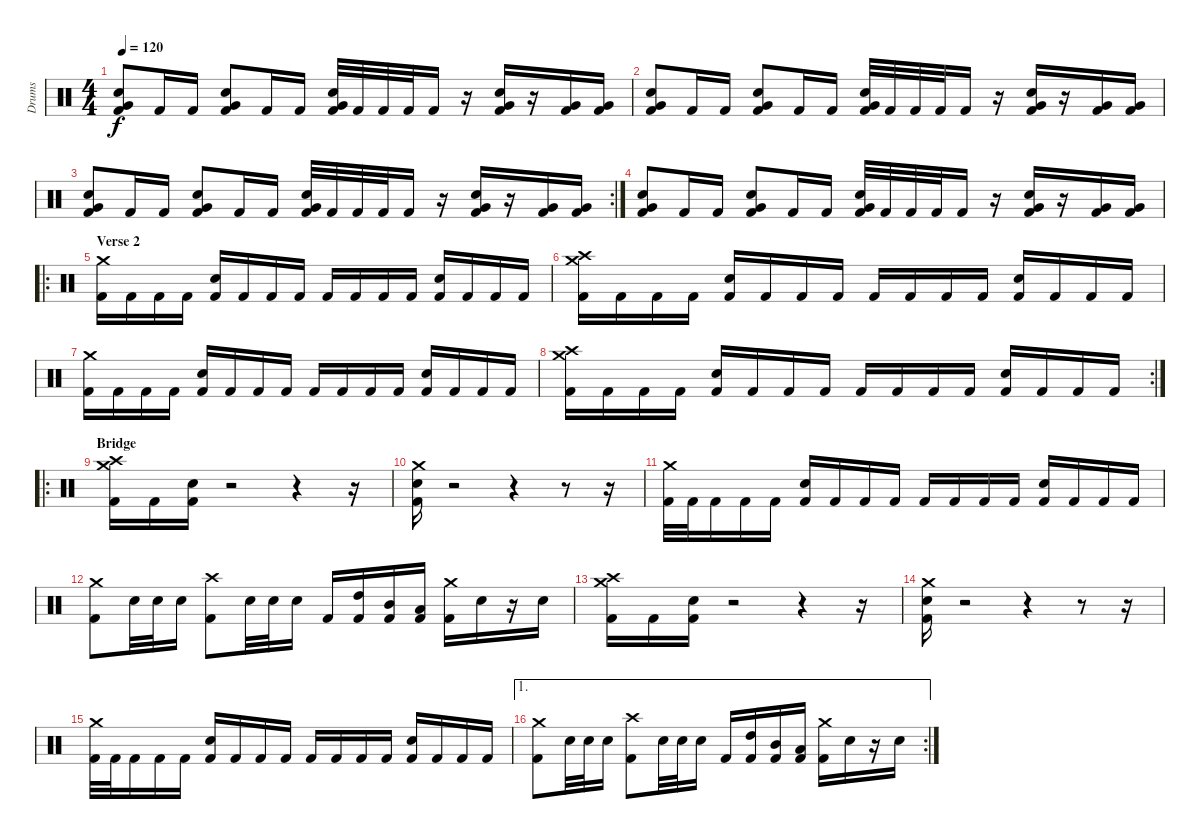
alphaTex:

\track ("Drums" "Drums") {instrument percussion}
\staff {score}
\articulation defaults
\ts (4 4)
\tempo 120
\clef neutral
\ks c
("Snare (hit) 2" "Very Low Tom (hit)" "Kick (hit) 2").8{dy f} "Kick (hit) 2".16 "Kick (hit) 2".16 ("Snare (hit) 2" "Very Low Tom (hit)" "Kick (hit) 2").8 "Kick (hit) 2".16 "Kick (hit) 2".16 ("Snare (hit) 2" "Very Low Tom (hit)" "Kick (hit) 2").32 "Kick (hit) 2".32 "Kick (hit) 2".32 "Kick (hit) 2".32 "Kick (hit) 2".16 r.16 ("Snare (hit) 2" "Very Low Tom (hit)" "Kick (hit) 2").16 r.16 ("Very Low Tom (hit)" "Kick (hit) 2").16 ("Very Low Tom (hit)" "Kick (hit) 2").16 |
("Snare (hit) 2" "Very Low Tom (hit)" "Kick (hit) 2").8 "Kick (hit) 2".16 "Kick (hit) 2".16 ("Snare (hit) 2" "Very Low Tom (hit)" "Kick (hit) 2").8 "Kick (hit) 2".16 "Kick (hit) 2".16 ("Snare (hit) 2" "Very Low Tom (hit)" "Kick (hit) 2").32 "Kick (hit) 2".32 "Kick (hit) 2".32 "Kick (hit) 2".32 "Kick (hit) 2".16 r.16 ("Snare (hit) 2" "Very Low Tom (hit)" "Kick (hit) 2").16 r.16 ("Very Low Tom (hit)" "Kick (hit) 2").16 ("Very Low Tom (hit)" "Kick (hit) 2").16 |
\rc 2
("Snare (hit) 2" "Very Low Tom (hit)" "Kick (hit) 2").8 "Kick (hit) 2".16 "Kick (hit) 2".16 ("Snare (hit) 2" "Very Low Tom (hit)" "Kick (hit) 2").8 "Kick (hit) 2".16 "Kick (hit) 2".16 ("Snare (hit) 2" "Very Low Tom (hit)" "Kick (hit) 2").32 "Kick (hit) 2".32 "Kick (hit) 2".32 "Kick (hit) 2".32 "Kick (hit) 2".16 r.16 ("Snare (hit) 2" "Very Low Tom (hit)" "Kick (hit) 2").16 r.16 ("Very Low Tom (hit)" "Kick (hit) 2").16 ("Very Low Tom (hit)" "Kick (hit) 2").16 |
("Snare (hit) 2" "Very Low Tom (hit)" "Kick (hit) 2").8 "Kick (hit) 2".16 "Kick (hit) 2".16 ("Snare (hit) 2" "Very Low Tom (hit)" "Kick (hit) 2").8 "Kick (hit) 2".16 "Kick (hit) 2".16 ("Snare (hit) 2" "Very Low Tom (hit)" "Kick (hit) 2").32 "Kick (hit) 2".32 "Kick (hit) 2".32 "Kick (hit) 2".32 "Kick (hit) 2".16 r.16 ("Snare (hit) 2" "Very Low Tom (hit)" "Kick (hit) 2").16 r.16 ("Very Low Tom (hit)" "Kick (hit) 2").16 ("Very Low Tom (hit)" "Kick (hit) 2").16 |
\ro
\section ("" "Verse 2")
("Crash medium (hit)" "Kick (hit) 2").16 "Kick (hit) 2".16 "Kick (hit) 2".16 "Kick (hit) 2".16 ("Snare (hit) 2" "Kick (hit) 2").16 "Kick (hit) 2".16 "Kick (hit) 2".16 "Kick (hit) 2".16 "Kick (hit) 2".16 "Kick (hit) 2".16 "Kick (hit) 2".16 "Kick (hit) 2".16 ("Snare (hit) 2" "Kick (hit) 2").16 "Kick (hit) 2".16 "Kick (hit) 2".16 "Kick (hit) 2".16 |
("Crash medium (hit)" "Crash high (hit)" "Kick (hit) 2").16 "Kick (hit) 2".16 "Kick (hit) 2".16 "Kick (hit) 2".16 ("Snare (hit) 2" "Kick (hit) 2").16 "Kick (hit) 2".16 "Kick (hit) 2".16 "Kick (hit) 2".16 "Kick (hit) 2".16 "Kick (hit) 2".16 "Kick (hit) 2".16 "Kick (hit) 2".16 ("Snare (hit) 2" "Kick (hit) 2").16 "Kick (hit) 2".16 "Kick (hit) 2".16 "Kick (hit) 2".16 |
("Crash medium (hit)" "Kick (hit) 2").16 "Kick (hit) 2".16 "Kick (hit) 2".16 "Kick (hit) 2".16 ("Snare (hit) 2" "Kick (hit) 2").16 "Kick (hit) 2".16 "Kick (hit) 2".16 "Kick (hit) 2".16 "Kick (hit) 2".16 "Kick (hit) 2".16 "Kick (hit) 2".16 "Kick (hit) 2".16 ("Snare (hit) 2" "Kick (hit) 2").16 "Kick (hit) 2".16 "Kick (hit) 2".16 "Kick (hit) 2".16 |
\rc 2
("Crash medium (hit)" "Crash high (hit)" "Kick (hit) 2").16 "Kick (hit) 2".16 "Kick (hit) 2".16 "Kick (hit) 2".16 ("Snare (hit) 2" "Kick (hit) 2").16 "Kick (hit) 2".16 "Kick (hit) 2".16 "Kick (hit) 2".16 "Kick (hit) 2".16 "Kick (hit) 2".16 "Kick (hit) 2".16 "Kick (hit) 2".16 ("Snare (hit) 2" "Kick (hit) 2").16 "Kick (hit) 2".16 "Kick (hit) 2".16 "Kick (hit) 2".16 |
\ro
\section ("" "Bridge")
("Crash medium (hit)" "Crash high (hit)" "Kick (hit) 2").16 "Kick (hit) 2".16 ("Snare (hit) 2" "Kick (hit) 2").16 r.2 r.4 r.16 |
("Crash medium (hit)" "Snare (hit) 2" "Kick (hit) 2").16 r.2 r.4 r.8 r.16 |
("Crash medium (hit)" "Kick (hit) 2").32 "Kick (hit) 2".32 "Kick (hit) 2".16 "Kick (hit) 2".16 "Kick (hit) 2".16 ("Snare (hit) 2" "Kick (hit) 2").16 "Kick (hit) 2".16 "Kick (hit) 2".16 "Kick (hit) 2".16 "Kick (hit) 2".16 "Kick (hit) 2".16 "Kick (hit) 2".16 "Kick (hit) 2".16 ("Snare (hit) 2" "Kick (hit) 2").16 "Kick (hit) 2".16 "Kick (hit) 2".16 "Kick (hit) 2".16 |
("Crash medium (hit)" "Kick (hit) 2").8 "Snare (hit) 2".32 "Snare (hit) 2".32 "Snare (hit) 2".16 ("Crash high (hit)" "Kick (hit) 2").8 "Snare (hit) 2".32 "Snare (hit) 2".32 "Snare (hit) 2".16 "Kick (hit) 2".16 ("High Tom (hit)" "Kick (hit) 2").16 ("Mid Tom (hit)" "Kick (hit) 2").16 ("Low Tom (hit)" "Kick (hit) 2").16 ("Crash medium (hit)" "Kick (hit) 2").16 "Snare (hit) 2".16 r.16 "Snare (hit) 2".16 |
("Crash medium (hit)" "Crash high (hit)" "Kick (hit) 2").16 "Kick (hit) 2".16 ("Snare (hit) 2" "Kick (hit) 2").16 r.2 r.4 r.16 |
("Crash medium (hit)" "Snare (hit) 2" "Kick (hit) 2").16 r.2 r.4 r.8 r.16 |
("Crash medium (hit)" "Kick (hit) 2").32 "Kick (hit) 2".32 "Kick (hit) 2".16 "Kick (hit) 2".16 "Kick (hit) 2".16 ("Snare (hit) 2" "Kick (hit) 2").16 "Kick (hit) 2".16 "Kick (hit) 2".16 "Kick (hit) 2".16 "Kick (hit) 2".16 "Kick (hit) 2".16 "Kick (hit) 2".16 "Kick (hit) 2".16 ("Snare (hit) 2" "Kick (hit) 2").16 "Kick (hit) 2".16 "Kick (hit) 2".16 "Kick (hit) 2".16 |
\ae 1
\rc 2
("Crash medium (hit)" "Kick (hit) 2").8 "Snare (hit) 2".32 "Snare (hit) 2".32 "Snare (hit) 2".16 ("Crash high (hit)" "Kick (hit) 2").8 "Snare (hit) 2".32 "Snare (hit) 2".32 "Snare (hit) 2".16 "Kick (hit) 2".16 ("High Tom (hit)" "Kick (hit) 2").16 ("Mid Tom (hit)" "Kick (hit) 2").16 ("Low Tom (hit)" "Kick (hit) 2").16 ("Crash medium (hit)" "Kick (hit) 2").16 "Snare (hit) 2".16 r.16 "Snare (hit) 2".16
